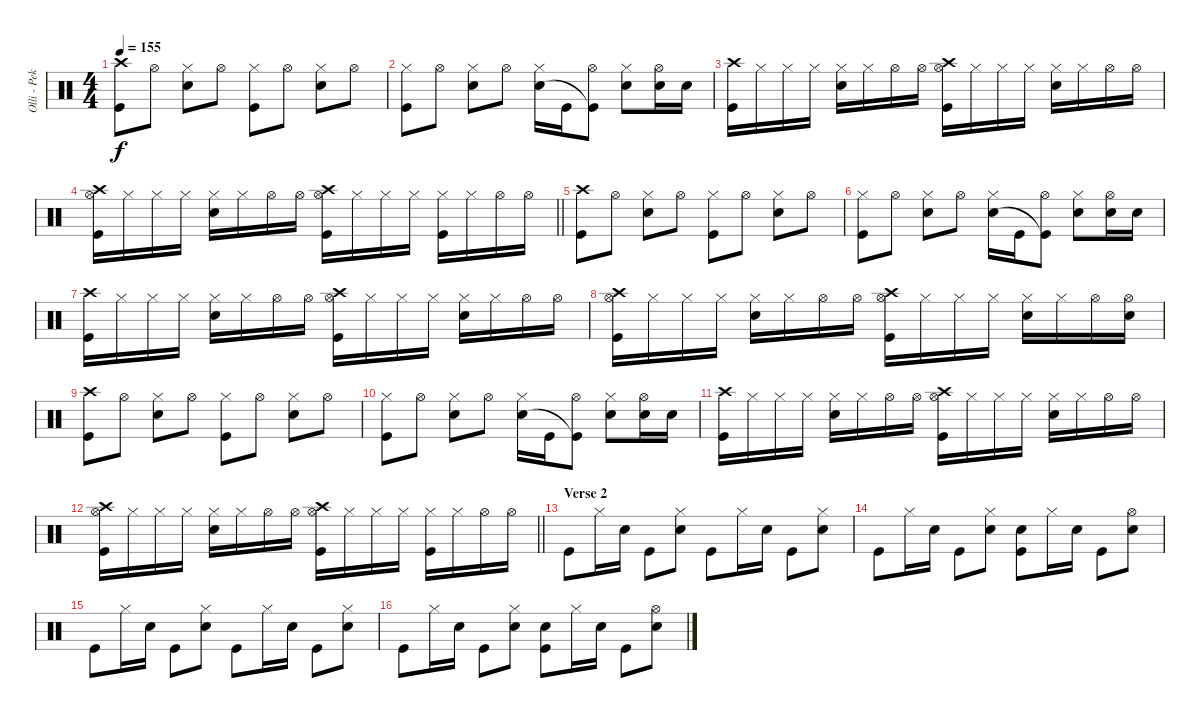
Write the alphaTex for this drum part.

\track ("Olli - Pekka" "Olli - Pek") {instrument percussion}
\staff {score}
\articulation defaults
\ts (4 4)
\tempo 155
\clef neutral
\ks c
("Crash high (hit)" "Kick (hit)").8{dy f} "Hi-Hat (open)".8 ("Hi-Hat (closed)" "Snare (hit) 2").8 "Hi-Hat (open)".8 ("Hi-Hat (closed)" "Kick (hit)").8 "Hi-Hat (open)".8 ("Hi-Hat (closed)" "Snare (hit) 2").8 "Hi-Hat (open)".8 |
("Hi-Hat (closed)" "Kick (hit)").8 "Hi-Hat (open)".8 ("Hi-Hat (closed)" "Snare (hit) 2").8 "Hi-Hat (open)".8 ("Hi-Hat (closed)" "Snare (hit) 2").16 "Kick (hit)".16 ("Hi-Hat (open)" "Kick (hit)"{t}).8 ("Hi-Hat (closed)" "Snare (hit) 2").8 ("Hi-Hat (open)" "Snare (hit) 2").16 "Snare (hit) 2".16 |
("Crash high (hit)" "Kick (hit)").16 "Hi-Hat (closed)".16 "Hi-Hat (closed)".16 "Hi-Hat (closed)".16 ("Hi-Hat (closed)" "Snare (hit) 2").16 "Hi-Hat (closed)".16 "Hi-Hat (open)".16 "Hi-Hat (open)".16 ("Crash high (hit)" "Hi-Hat (open)" "Kick (hit)").16 "Hi-Hat (closed)".16 "Hi-Hat (closed)".16 "Hi-Hat (closed)".16 ("Hi-Hat (closed)" "Snare (hit) 2").16 "Hi-Hat (closed)".16 "Hi-Hat (open)".16 "Hi-Hat (open)".16 |
\barLineRight lightlight
("Crash high (hit)" "Hi-Hat (open)" "Kick (hit)").16 "Hi-Hat (closed)".16 "Hi-Hat (closed)".16 "Hi-Hat (closed)".16 ("Hi-Hat (closed)" "Snare (hit) 2").16 "Hi-Hat (closed)".16 "Hi-Hat (open)".16 "Hi-Hat (open)".16 ("Crash high (hit)" "Hi-Hat (open)" "Kick (hit)").16 "Hi-Hat (closed)".16 "Hi-Hat (closed)".16 "Hi-Hat (closed)".16 ("Hi-Hat (closed)" "Kick (hit)").16 "Hi-Hat (closed)".16 "Hi-Hat (open)".16 "Hi-Hat (open)".16 |
("Crash high (hit)" "Kick (hit)").8 "Hi-Hat (open)".8 ("Hi-Hat (closed)" "Snare (hit) 2").8 "Hi-Hat (open)".8 ("Hi-Hat (closed)" "Kick (hit)").8 "Hi-Hat (open)".8 ("Hi-Hat (closed)" "Snare (hit) 2").8 "Hi-Hat (open)".8 |
("Hi-Hat (closed)" "Kick (hit)").8 "Hi-Hat (open)".8 ("Hi-Hat (closed)" "Snare (hit) 2").8 "Hi-Hat (open)".8 ("Hi-Hat (closed)" "Snare (hit) 2").16 "Kick (hit)".16 ("Hi-Hat (open)" "Kick (hit)"{t}).8 ("Hi-Hat (closed)" "Snare (hit) 2").8 ("Hi-Hat (open)" "Snare (hit) 2").16 "Snare (hit) 2".16 |
("Crash high (hit)" "Kick (hit)").16 "Hi-Hat (closed)".16 "Hi-Hat (closed)".16 "Hi-Hat (closed)".16 ("Hi-Hat (closed)" "Snare (hit) 2").16 "Hi-Hat (closed)".16 "Hi-Hat (open)".16 "Hi-Hat (open)".16 ("Crash high (hit)" "Hi-Hat (open)" "Kick (hit)").16 "Hi-Hat (closed)".16 "Hi-Hat (closed)".16 "Hi-Hat (closed)".16 ("Hi-Hat (closed)" "Snare (hit) 2").16 "Hi-Hat (closed)".16 "Hi-Hat (open)".16 "Hi-Hat (open)".16 |
("Crash high (hit)" "Hi-Hat (open)" "Kick (hit)").16 "Hi-Hat (closed)".16 "Hi-Hat (closed)".16 "Hi-Hat (closed)".16 ("Hi-Hat (closed)" "Snare (hit) 2").16 "Hi-Hat (closed)".16 "Hi-Hat (open)".16 "Hi-Hat (open)".16 ("Crash high (hit)" "Hi-Hat (open)" "Kick (hit)").16 "Hi-Hat (closed)".16 "Hi-Hat (closed)".16 "Hi-Hat (closed)".16 ("Hi-Hat (closed)" "Snare (hit) 2").16 "Hi-Hat (closed)".16 "Hi-Hat (open)".16 ("Hi-Hat (open)" "Snare (hit) 2").16 |
("Crash high (hit)" "Kick (hit)").8 "Hi-Hat (open)".8 ("Hi-Hat (closed)" "Snare (hit) 2").8 "Hi-Hat (open)".8 ("Hi-Hat (closed)" "Kick (hit)").8 "Hi-Hat (open)".8 ("Hi-Hat (closed)" "Snare (hit) 2").8 "Hi-Hat (open)".8 |
("Hi-Hat (closed)" "Kick (hit)").8 "Hi-Hat (open)".8 ("Hi-Hat (closed)" "Snare (hit) 2").8 "Hi-Hat (open)".8 ("Hi-Hat (closed)" "Snare (hit) 2").16 "Kick (hit)".16 ("Hi-Hat (open)" "Kick (hit)"{t}).8 ("Hi-Hat (closed)" "Snare (hit) 2").8 ("Hi-Hat (open)" "Snare (hit) 2").16 "Snare (hit) 2".16 |
("Crash high (hit)" "Kick (hit)").16 "Hi-Hat (closed)".16 "Hi-Hat (closed)".16 "Hi-Hat (closed)".16 ("Hi-Hat (closed)" "Snare (hit) 2").16 "Hi-Hat (closed)".16 "Hi-Hat (open)".16 "Hi-Hat (open)".16 ("Crash high (hit)" "Hi-Hat (open)" "Kick (hit)").16 "Hi-Hat (closed)".16 "Hi-Hat (closed)".16 "Hi-Hat (closed)".16 ("Hi-Hat (closed)" "Snare (hit) 2").16 "Hi-Hat (closed)".16 "Hi-Hat (open)".16 "Hi-Hat (open)".16 |
\barLineRight lightlight
("Crash high (hit)" "Hi-Hat (open)" "Kick (hit)").16 "Hi-Hat (closed)".16 "Hi-Hat (closed)".16 "Hi-Hat (closed)".16 ("Hi-Hat (closed)" "Snare (hit) 2").16 "Hi-Hat (closed)".16 "Hi-Hat (open)".16 "Hi-Hat (open)".16 ("Crash high (hit)" "Hi-Hat (open)" "Kick (hit)").16 "Hi-Hat (closed)".16 "Hi-Hat (closed)".16 "Hi-Hat (closed)".16 ("Hi-Hat (closed)" "Kick (hit)").16 "Hi-Hat (closed)".16 "Hi-Hat (open)".16 "Hi-Hat (open)".16 |
\section ("" "Verse 2")
"Kick (hit)".8 "Hi-Hat (closed)".16 "Snare (hit) 2".16 "Kick (hit)".8 ("Hi-Hat (closed)" "Snare (hit) 2").8 "Kick (hit)".8 "Hi-Hat (closed)".16 "Snare (hit) 2".16 "Kick (hit)".8 ("Hi-Hat (closed)" "Snare (hit) 2").8 |
"Kick (hit)".8 "Hi-Hat (closed)".16 "Snare (hit) 2".16 "Kick (hit)".8 ("Hi-Hat (closed)" "Snare (hit) 2").8 ("Snare (hit) 2" "Kick (hit)").8 "Hi-Hat (closed)".16 "Snare (hit) 2".16 "Kick (hit)".8 ("Hi-Hat (open)" "Snare (hit) 2").8 |
"Kick (hit)".8 "Hi-Hat (closed)".16 "Snare (hit) 2".16 "Kick (hit)".8 ("Hi-Hat (closed)" "Snare (hit) 2").8 "Kick (hit)".8 "Hi-Hat (closed)".16 "Snare (hit) 2".16 "Kick (hit)".8 ("Hi-Hat (closed)" "Snare (hit) 2").8 |
"Kick (hit)".8 "Hi-Hat (closed)".16 "Snare (hit) 2".16 "Kick (hit)".8 ("Hi-Hat (closed)" "Snare (hit) 2").8 ("Snare (hit) 2" "Kick (hit)").8 "Hi-Hat (closed)".16 "Snare (hit) 2".16 "Kick (hit)".8 ("Hi-Hat (open)" "Snare (hit) 2").8
